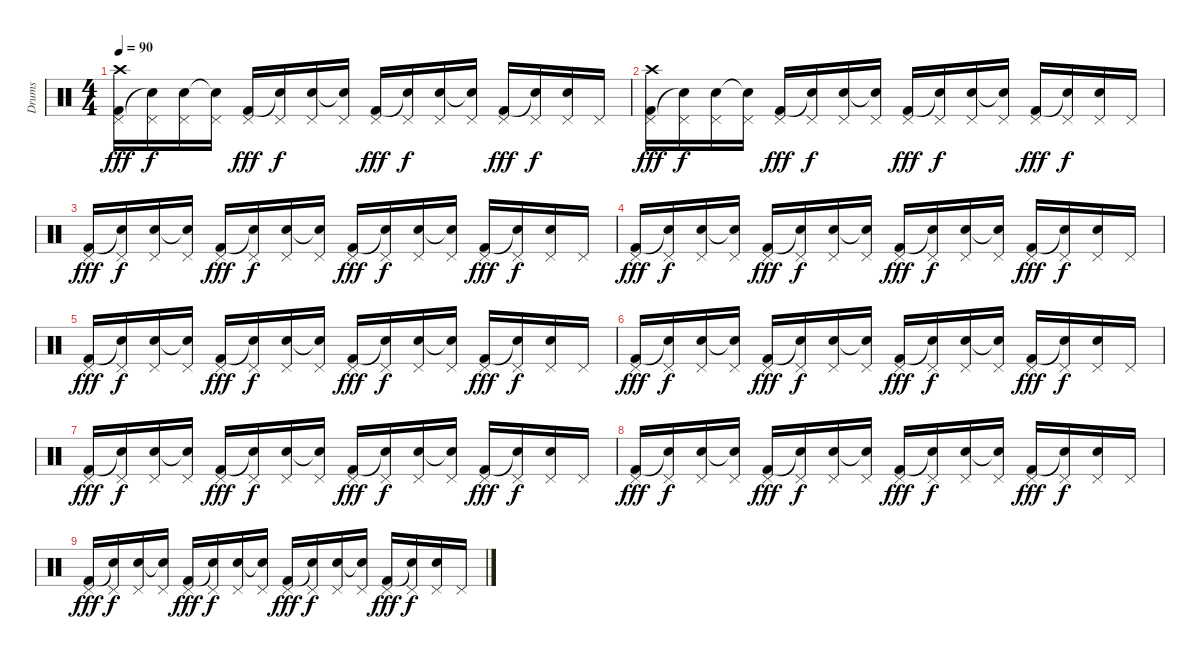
\track ("Drums" "Drums") {instrument percussion}
\staff {score}
\articulation defaults
\ts (4 4)
\tempo 90
\clef neutral
\ks c
("Crash high (hit)" "Pedal Hi-Hat (hit)" "Kick (hit) 2").16{dy fff} ("Pedal Hi-Hat (hit)" "Snare (hit)"{t}).16{dy f} ("Pedal Hi-Hat (hit)" "Electric Snare (hit)").16 ("Pedal Hi-Hat (hit)" "Snare (hit)"{t}).16 ("Pedal Hi-Hat (hit)" "Kick (hit) 2").16{dy fff} ("Pedal Hi-Hat (hit)" "Snare (hit)"{t}).16{dy f} ("Pedal Hi-Hat (hit)" "Electric Snare (hit)").16 ("Pedal Hi-Hat (hit)" "Snare (hit)"{t}).16 ("Pedal Hi-Hat (hit)" "Kick (hit) 2").16{dy fff} ("Pedal Hi-Hat (hit)" "Snare (hit)"{t}).16{dy f} ("Pedal Hi-Hat (hit)" "Electric Snare (hit)").16 ("Pedal Hi-Hat (hit)" "Snare (hit)"{t}).16 ("Pedal Hi-Hat (hit)" "Kick (hit) 2").16{dy fff} ("Pedal Hi-Hat (hit)" "Snare (hit)"{t}).16{dy f} ("Pedal Hi-Hat (hit)" "Electric Snare (hit)").16 "Pedal Hi-Hat (hit)".16 |
("Crash high (hit)" "Pedal Hi-Hat (hit)" "Kick (hit) 2").16{dy fff} ("Pedal Hi-Hat (hit)" "Snare (hit)"{t}).16{dy f} ("Pedal Hi-Hat (hit)" "Electric Snare (hit)").16 ("Pedal Hi-Hat (hit)" "Snare (hit)"{t}).16 ("Pedal Hi-Hat (hit)" "Kick (hit) 2").16{dy fff} ("Pedal Hi-Hat (hit)" "Snare (hit)"{t}).16{dy f} ("Pedal Hi-Hat (hit)" "Electric Snare (hit)").16 ("Pedal Hi-Hat (hit)" "Snare (hit)"{t}).16 ("Pedal Hi-Hat (hit)" "Kick (hit) 2").16{dy fff} ("Pedal Hi-Hat (hit)" "Snare (hit)"{t}).16{dy f} ("Pedal Hi-Hat (hit)" "Electric Snare (hit)").16 ("Pedal Hi-Hat (hit)" "Snare (hit)"{t}).16 ("Pedal Hi-Hat (hit)" "Kick (hit) 2").16{dy fff} ("Pedal Hi-Hat (hit)" "Snare (hit)"{t}).16{dy f} ("Pedal Hi-Hat (hit)" "Electric Snare (hit)").16 "Pedal Hi-Hat (hit)".16 |
("Pedal Hi-Hat (hit)" "Kick (hit) 2").16{dy fff} ("Pedal Hi-Hat (hit)" "Snare (hit)"{t}).16{dy f} ("Pedal Hi-Hat (hit)" "Electric Snare (hit)").16 ("Pedal Hi-Hat (hit)" "Snare (hit)"{t}).16 ("Pedal Hi-Hat (hit)" "Kick (hit) 2").16{dy fff} ("Pedal Hi-Hat (hit)" "Snare (hit)"{t}).16{dy f} ("Pedal Hi-Hat (hit)" "Electric Snare (hit)").16 ("Pedal Hi-Hat (hit)" "Snare (hit)"{t}).16 ("Pedal Hi-Hat (hit)" "Kick (hit) 2").16{dy fff} ("Pedal Hi-Hat (hit)" "Snare (hit)"{t}).16{dy f} ("Pedal Hi-Hat (hit)" "Electric Snare (hit)").16 ("Pedal Hi-Hat (hit)" "Snare (hit)"{t}).16 ("Pedal Hi-Hat (hit)" "Kick (hit) 2").16{dy fff} ("Pedal Hi-Hat (hit)" "Snare (hit)"{t}).16{dy f} ("Pedal Hi-Hat (hit)" "Electric Snare (hit)").16 "Pedal Hi-Hat (hit)".16 |
("Pedal Hi-Hat (hit)" "Kick (hit) 2").16{dy fff} ("Pedal Hi-Hat (hit)" "Snare (hit)"{t}).16{dy f} ("Pedal Hi-Hat (hit)" "Electric Snare (hit)").16 ("Pedal Hi-Hat (hit)" "Snare (hit)"{t}).16 ("Pedal Hi-Hat (hit)" "Kick (hit) 2").16{dy fff} ("Pedal Hi-Hat (hit)" "Snare (hit)"{t}).16{dy f} ("Pedal Hi-Hat (hit)" "Electric Snare (hit)").16 ("Pedal Hi-Hat (hit)" "Snare (hit)"{t}).16 ("Pedal Hi-Hat (hit)" "Kick (hit) 2").16{dy fff} ("Pedal Hi-Hat (hit)" "Snare (hit)"{t}).16{dy f} ("Pedal Hi-Hat (hit)" "Electric Snare (hit)").16 ("Pedal Hi-Hat (hit)" "Snare (hit)"{t}).16 ("Pedal Hi-Hat (hit)" "Kick (hit) 2").16{dy fff} ("Pedal Hi-Hat (hit)" "Snare (hit)"{t}).16{dy f} ("Pedal Hi-Hat (hit)" "Electric Snare (hit)").16 "Pedal Hi-Hat (hit)".16 |
("Pedal Hi-Hat (hit)" "Kick (hit) 2").16{dy fff} ("Pedal Hi-Hat (hit)" "Snare (hit)"{t}).16{dy f} ("Pedal Hi-Hat (hit)" "Electric Snare (hit)").16 ("Pedal Hi-Hat (hit)" "Snare (hit)"{t}).16 ("Pedal Hi-Hat (hit)" "Kick (hit) 2").16{dy fff} ("Pedal Hi-Hat (hit)" "Snare (hit)"{t}).16{dy f} ("Pedal Hi-Hat (hit)" "Electric Snare (hit)").16 ("Pedal Hi-Hat (hit)" "Snare (hit)"{t}).16 ("Pedal Hi-Hat (hit)" "Kick (hit) 2").16{dy fff} ("Pedal Hi-Hat (hit)" "Snare (hit)"{t}).16{dy f} ("Pedal Hi-Hat (hit)" "Electric Snare (hit)").16 ("Pedal Hi-Hat (hit)" "Snare (hit)"{t}).16 ("Pedal Hi-Hat (hit)" "Kick (hit) 2").16{dy fff} ("Pedal Hi-Hat (hit)" "Snare (hit)"{t}).16{dy f} ("Pedal Hi-Hat (hit)" "Electric Snare (hit)").16 "Pedal Hi-Hat (hit)".16 |
("Pedal Hi-Hat (hit)" "Kick (hit) 2").16{dy fff} ("Pedal Hi-Hat (hit)" "Snare (hit)"{t}).16{dy f} ("Pedal Hi-Hat (hit)" "Electric Snare (hit)").16 ("Pedal Hi-Hat (hit)" "Snare (hit)"{t}).16 ("Pedal Hi-Hat (hit)" "Kick (hit) 2").16{dy fff} ("Pedal Hi-Hat (hit)" "Snare (hit)"{t}).16{dy f} ("Pedal Hi-Hat (hit)" "Electric Snare (hit)").16 ("Pedal Hi-Hat (hit)" "Snare (hit)"{t}).16 ("Pedal Hi-Hat (hit)" "Kick (hit) 2").16{dy fff} ("Pedal Hi-Hat (hit)" "Snare (hit)"{t}).16{dy f} ("Pedal Hi-Hat (hit)" "Electric Snare (hit)").16 ("Pedal Hi-Hat (hit)" "Snare (hit)"{t}).16 ("Pedal Hi-Hat (hit)" "Kick (hit) 2").16{dy fff} ("Pedal Hi-Hat (hit)" "Snare (hit)"{t}).16{dy f} ("Pedal Hi-Hat (hit)" "Electric Snare (hit)").16 "Pedal Hi-Hat (hit)".16 |
("Pedal Hi-Hat (hit)" "Kick (hit) 2").16{dy fff} ("Pedal Hi-Hat (hit)" "Snare (hit)"{t}).16{dy f} ("Pedal Hi-Hat (hit)" "Electric Snare (hit)").16 ("Pedal Hi-Hat (hit)" "Snare (hit)"{t}).16 ("Pedal Hi-Hat (hit)" "Kick (hit) 2").16{dy fff} ("Pedal Hi-Hat (hit)" "Snare (hit)"{t}).16{dy f} ("Pedal Hi-Hat (hit)" "Electric Snare (hit)").16 ("Pedal Hi-Hat (hit)" "Snare (hit)"{t}).16 ("Pedal Hi-Hat (hit)" "Kick (hit) 2").16{dy fff} ("Pedal Hi-Hat (hit)" "Snare (hit)"{t}).16{dy f} ("Pedal Hi-Hat (hit)" "Electric Snare (hit)").16 ("Pedal Hi-Hat (hit)" "Snare (hit)"{t}).16 ("Pedal Hi-Hat (hit)" "Kick (hit) 2").16{dy fff} ("Pedal Hi-Hat (hit)" "Snare (hit)"{t}).16{dy f} ("Pedal Hi-Hat (hit)" "Electric Snare (hit)").16 "Pedal Hi-Hat (hit)".16 |
("Pedal Hi-Hat (hit)" "Kick (hit) 2").16{dy fff} ("Pedal Hi-Hat (hit)" "Snare (hit)"{t}).16{dy f} ("Pedal Hi-Hat (hit)" "Electric Snare (hit)").16 ("Pedal Hi-Hat (hit)" "Snare (hit)"{t}).16 ("Pedal Hi-Hat (hit)" "Kick (hit) 2").16{dy fff} ("Pedal Hi-Hat (hit)" "Snare (hit)"{t}).16{dy f} ("Pedal Hi-Hat (hit)" "Electric Snare (hit)").16 ("Pedal Hi-Hat (hit)" "Snare (hit)"{t}).16 ("Pedal Hi-Hat (hit)" "Kick (hit) 2").16{dy fff} ("Pedal Hi-Hat (hit)" "Snare (hit)"{t}).16{dy f} ("Pedal Hi-Hat (hit)" "Electric Snare (hit)").16 ("Pedal Hi-Hat (hit)" "Snare (hit)"{t}).16 ("Pedal Hi-Hat (hit)" "Kick (hit) 2").16{dy fff} ("Pedal Hi-Hat (hit)" "Snare (hit)"{t}).16{dy f} ("Pedal Hi-Hat (hit)" "Electric Snare (hit)").16 "Pedal Hi-Hat (hit)".16 |
("Pedal Hi-Hat (hit)" "Kick (hit) 2").16{dy fff} ("Pedal Hi-Hat (hit)" "Snare (hit)"{t}).16{dy f} ("Pedal Hi-Hat (hit)" "Electric Snare (hit)").16 ("Pedal Hi-Hat (hit)" "Snare (hit)"{t}).16 ("Pedal Hi-Hat (hit)" "Kick (hit) 2").16{dy fff} ("Pedal Hi-Hat (hit)" "Snare (hit)"{t}).16{dy f} ("Pedal Hi-Hat (hit)" "Electric Snare (hit)").16 ("Pedal Hi-Hat (hit)" "Snare (hit)"{t}).16 ("Pedal Hi-Hat (hit)" "Kick (hit) 2").16{dy fff} ("Pedal Hi-Hat (hit)" "Snare (hit)"{t}).16{dy f} ("Pedal Hi-Hat (hit)" "Electric Snare (hit)").16 ("Pedal Hi-Hat (hit)" "Snare (hit)"{t}).16 ("Pedal Hi-Hat (hit)" "Kick (hit) 2").16{dy fff} ("Pedal Hi-Hat (hit)" "Snare (hit)"{t}).16{dy f} ("Pedal Hi-Hat (hit)" "Electric Snare (hit)").16 "Pedal Hi-Hat (hit)".16
